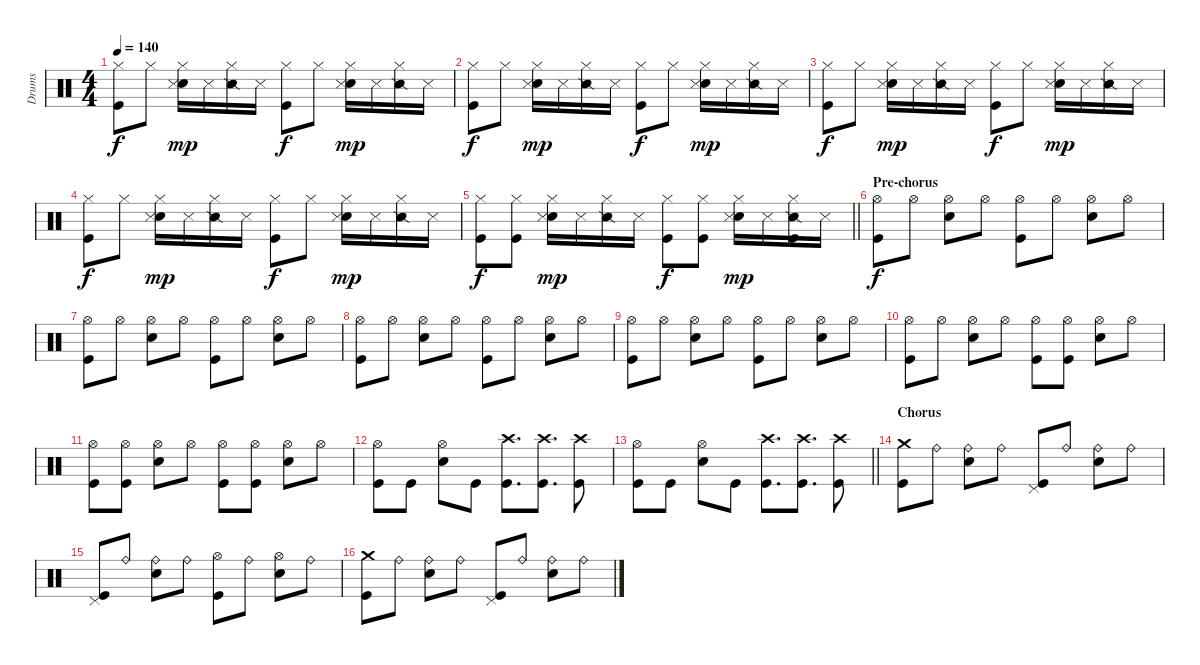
\track ("Drums" "Drums") {instrument percussion}
\staff {score}
\articulation defaults
\ts (4 4)
\tempo 140
\clef neutral
\ks c
("Hi-Hat (closed)" "Kick (hit)").8{dy f} "Hi-Hat (closed)".8 ("Hi-Hat (closed)" "Snare (hit) 2" "Snare (side stick) 3").16{dy mp} "Metronome (hit)".16 ("Hi-Hat (closed)" "Snare (side stick) 2").16 "Metronome (hit)".16 ("Hi-Hat (closed)" "Kick (hit)").8{dy f} "Hi-Hat (closed)".8 ("Hi-Hat (closed)" "Snare (hit) 2" "Snare (side stick) 3").16{dy mp} "Metronome (hit)".16 ("Hi-Hat (closed)" "Snare (side stick) 2").16 "Metronome (hit)".16 |
("Hi-Hat (closed)" "Kick (hit)").8{dy f} "Hi-Hat (closed)".8 ("Hi-Hat (closed)" "Snare (hit) 2" "Snare (side stick) 3").16{dy mp} "Metronome (hit)".16 ("Hi-Hat (closed)" "Snare (side stick) 2").16 "Metronome (hit)".16 ("Hi-Hat (closed)" "Kick (hit)").8{dy f} "Hi-Hat (closed)".8 ("Hi-Hat (closed)" "Snare (hit) 2" "Snare (side stick) 3").16{dy mp} "Metronome (hit)".16 ("Hi-Hat (closed)" "Snare (side stick) 2").16 "Metronome (hit)".16 |
("Hi-Hat (closed)" "Kick (hit)").8{dy f} "Hi-Hat (closed)".8 ("Hi-Hat (closed)" "Snare (hit) 2" "Snare (side stick) 3").16{dy mp} "Metronome (hit)".16 ("Hi-Hat (closed)" "Snare (side stick) 2").16 "Metronome (hit)".16 ("Hi-Hat (closed)" "Kick (hit)").8{dy f} "Hi-Hat (closed)".8 ("Hi-Hat (closed)" "Snare (hit) 2" "Snare (side stick) 3").16{dy mp} "Metronome (hit)".16 ("Hi-Hat (closed)" "Snare (side stick) 2").16 "Metronome (hit)".16 |
("Hi-Hat (closed)" "Kick (hit)").8{dy f} "Hi-Hat (closed)".8 ("Hi-Hat (closed)" "Snare (hit) 2" "Snare (side stick) 3").16{dy mp} "Metronome (hit)".16 ("Hi-Hat (closed)" "Snare (side stick) 2").16 "Metronome (hit)".16 ("Hi-Hat (closed)" "Kick (hit)").8{dy f} "Hi-Hat (closed)".8 ("Hi-Hat (closed)" "Snare (hit) 2" "Snare (side stick) 3").16{dy mp} "Metronome (hit)".16 ("Hi-Hat (closed)" "Snare (side stick) 2").16 "Metronome (hit)".16 |
\barLineRight lightlight
("Hi-Hat (closed)" "Kick (hit)").8{dy f} ("Hi-Hat (closed)" "Kick (hit)").8 ("Hi-Hat (closed)" "Snare (hit) 2" "Snare (side stick) 3").16{dy mp} "Metronome (hit)".16 ("Hi-Hat (closed)" "Snare (side stick) 2").16 "Metronome (hit)".16 ("Hi-Hat (closed)" "Kick (hit)").8{dy f} ("Hi-Hat (closed)" "Kick (hit)").8 ("Hi-Hat (closed)" "Snare (hit) 2" "Snare (side stick) 3").16{dy mp} "Metronome (hit)".16 ("Hi-Hat (closed)" "Snare (side stick) 2" "Kick (hit)").16 "Metronome (hit)".16 |
\section ("" "Pre-chorus")
("Hi-Hat (open)" "Kick (hit)").8{dy f} "Hi-Hat (open)".8 ("Hi-Hat (open)" "Snare (hit) 2").8 "Hi-Hat (open)".8 ("Hi-Hat (open)" "Kick (hit)").8 "Hi-Hat (open)".8 ("Hi-Hat (open)" "Snare (hit) 2").8 "Hi-Hat (open)".8 |
("Hi-Hat (open)" "Kick (hit)").8 "Hi-Hat (open)".8 ("Hi-Hat (open)" "Snare (hit) 2").8 "Hi-Hat (open)".8 ("Hi-Hat (open)" "Kick (hit)").8 "Hi-Hat (open)".8 ("Hi-Hat (open)" "Snare (hit) 2").8 "Hi-Hat (open)".8 |
("Hi-Hat (open)" "Kick (hit)").8 "Hi-Hat (open)".8 ("Hi-Hat (open)" "Snare (hit) 2").8 "Hi-Hat (open)".8 ("Hi-Hat (open)" "Kick (hit)").8 "Hi-Hat (open)".8 ("Hi-Hat (open)" "Snare (hit) 2").8 "Hi-Hat (open)".8 |
("Hi-Hat (open)" "Kick (hit)").8 "Hi-Hat (open)".8 ("Hi-Hat (open)" "Snare (hit) 2").8 "Hi-Hat (open)".8 ("Hi-Hat (open)" "Kick (hit)").8 "Hi-Hat (open)".8 ("Hi-Hat (open)" "Snare (hit) 2").8 "Hi-Hat (open)".8 |
("Hi-Hat (open)" "Kick (hit)").8 "Hi-Hat (open)".8 ("Hi-Hat (open)" "Snare (hit) 2").8 "Hi-Hat (open)".8 ("Hi-Hat (open)" "Kick (hit)").8 ("Hi-Hat (open)" "Kick (hit)").8 ("Hi-Hat (open)" "Snare (hit) 2").8 "Hi-Hat (open)".8 |
("Hi-Hat (open)" "Kick (hit)").8 ("Hi-Hat (open)" "Kick (hit)").8 ("Hi-Hat (open)" "Snare (hit) 2").8 "Hi-Hat (open)".8 ("Hi-Hat (open)" "Kick (hit)").8 ("Hi-Hat (open)" "Kick (hit)").8 ("Hi-Hat (open)" "Snare (hit) 2").8 "Hi-Hat (open)".8 |
("Hi-Hat (open)" "Kick (hit)").8 "Kick (hit)".8 ("Hi-Hat (open)" "Snare (hit) 2").8 "Kick (hit)".8 ("Crash high (hit)" "Kick (hit)").8{d} ("Crash high (hit)" "Kick (hit)").8{d} ("Crash high (hit)" "Kick (hit)").8 |
\barLineRight lightlight
("Hi-Hat (open)" "Kick (hit)").8 "Kick (hit)".8 ("Hi-Hat (open)" "Snare (hit) 2").8 "Kick (hit)".8 ("Crash high (hit)" "Kick (hit)").8{d} ("Crash high (hit)" "Kick (hit)").8{d} ("Crash high (hit)" "Kick (hit)").8 |
\section ("" "Chorus")
("Crash medium (hit)" "Kick (hit)").8 "Ride (bell)".8 ("Ride (bell)" "Snare (hit) 2").8 "Ride (bell)".8 ("Pedal Hi-Hat (hit)" "Kick (hit)").8 "Ride (bell)".8 ("Ride (bell)" "Snare (hit) 2").8 "Ride (bell)".8 |
("Pedal Hi-Hat (hit)" "Kick (hit)").8 "Ride (bell)".8 ("Ride (bell)" "Snare (hit) 2").8 "Ride (bell)".8 ("Hi-Hat (open)" "Kick (hit)").8 "Ride (bell)".8 ("Hi-Hat (open)" "Snare (hit) 2").8 "Ride (bell)".8 |
("Crash medium (hit)" "Kick (hit)").8 "Ride (bell)".8 ("Ride (bell)" "Snare (hit) 2").8 "Ride (bell)".8 ("Pedal Hi-Hat (hit)" "Kick (hit)").8 "Ride (bell)".8 ("Ride (bell)" "Snare (hit) 2").8 "Ride (bell)".8
